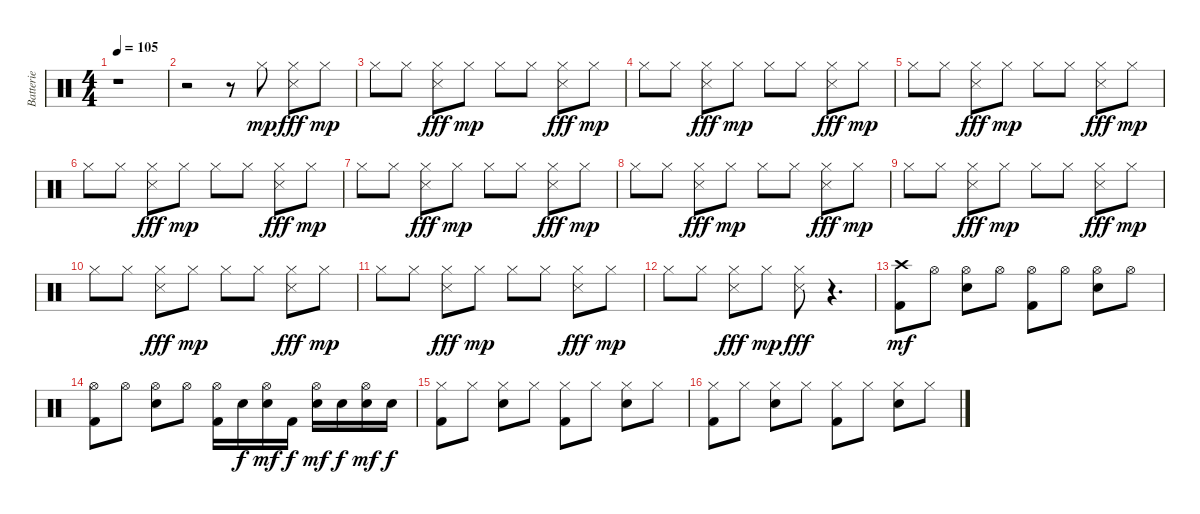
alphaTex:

\track ("Batterie" "Batterie") {instrument percussion}
\staff {score}
\articulation defaults
\ts (4 4)
\tempo 105
\clef neutral
\ks c
r.1{dy mp} |
r.2 r.8 "Hi-Hat (closed)".8 ("Hi-Hat (closed)" "Snare (side stick) 3").8{dy fff} "Hi-Hat (closed)".8{dy mp} |
"Hi-Hat (closed)".8 "Hi-Hat (closed)".8 ("Hi-Hat (closed)" "Snare (side stick) 3").8{dy fff} "Hi-Hat (closed)".8{dy mp} "Hi-Hat (closed)".8 "Hi-Hat (closed)".8 ("Hi-Hat (closed)" "Snare (side stick) 3").8{dy fff} "Hi-Hat (closed)".8{dy mp} |
"Hi-Hat (closed)".8 "Hi-Hat (closed)".8 ("Hi-Hat (closed)" "Snare (side stick) 3").8{dy fff} "Hi-Hat (closed)".8{dy mp} "Hi-Hat (closed)".8 "Hi-Hat (closed)".8 ("Hi-Hat (closed)" "Snare (side stick) 3").8{dy fff} "Hi-Hat (closed)".8{dy mp} |
"Hi-Hat (closed)".8 "Hi-Hat (closed)".8 ("Hi-Hat (closed)" "Snare (side stick) 3").8{dy fff} "Hi-Hat (closed)".8{dy mp} "Hi-Hat (closed)".8 "Hi-Hat (closed)".8 ("Hi-Hat (closed)" "Snare (side stick) 3").8{dy fff} "Hi-Hat (closed)".8{dy mp} |
"Hi-Hat (closed)".8 "Hi-Hat (closed)".8 ("Hi-Hat (closed)" "Snare (side stick) 3").8{dy fff} "Hi-Hat (closed)".8{dy mp} "Hi-Hat (closed)".8 "Hi-Hat (closed)".8 ("Hi-Hat (closed)" "Snare (side stick) 3").8{dy fff} "Hi-Hat (closed)".8{dy mp} |
"Hi-Hat (closed)".8 "Hi-Hat (closed)".8 ("Hi-Hat (closed)" "Snare (side stick) 3").8{dy fff} "Hi-Hat (closed)".8{dy mp} "Hi-Hat (closed)".8 "Hi-Hat (closed)".8 ("Hi-Hat (closed)" "Snare (side stick) 3").8{dy fff} "Hi-Hat (closed)".8{dy mp} |
"Hi-Hat (closed)".8 "Hi-Hat (closed)".8 ("Hi-Hat (closed)" "Snare (side stick) 3").8{dy fff} "Hi-Hat (closed)".8{dy mp} "Hi-Hat (closed)".8 "Hi-Hat (closed)".8 ("Hi-Hat (closed)" "Snare (side stick) 3").8{dy fff} "Hi-Hat (closed)".8{dy mp} |
"Hi-Hat (closed)".8 "Hi-Hat (closed)".8 ("Hi-Hat (closed)" "Snare (side stick) 3").8{dy fff} "Hi-Hat (closed)".8{dy mp} "Hi-Hat (closed)".8 "Hi-Hat (closed)".8 ("Hi-Hat (closed)" "Snare (side stick) 3").8{dy fff} "Hi-Hat (closed)".8{dy mp} |
"Hi-Hat (closed)".8 "Hi-Hat (closed)".8 ("Hi-Hat (closed)" "Snare (side stick) 3").8{dy fff} "Hi-Hat (closed)".8{dy mp} "Hi-Hat (closed)".8 "Hi-Hat (closed)".8 ("Hi-Hat (closed)" "Snare (side stick) 3").8{dy fff} "Hi-Hat (closed)".8{dy mp} |
"Hi-Hat (closed)".8 "Hi-Hat (closed)".8 ("Hi-Hat (closed)" "Snare (side stick) 3").8{dy fff} "Hi-Hat (closed)".8{dy mp} "Hi-Hat (closed)".8 "Hi-Hat (closed)".8 ("Hi-Hat (closed)" "Snare (side stick) 3").8{dy fff} "Hi-Hat (closed)".8{dy mp} |
"Hi-Hat (closed)".8 "Hi-Hat (closed)".8 ("Hi-Hat (closed)" "Snare (side stick) 3").8{dy fff} "Hi-Hat (closed)".8{dy mp} ("Hi-Hat (closed)" "Snare (side stick) 3").8{dy fff} r.4{d} |
("Crash high (hit)" "Kick (hit) 2").8{dy mf} "Hi-Hat (open)".8 ("Hi-Hat (open)" "Electric Snare (hit)").8 "Hi-Hat (open)".8 ("Hi-Hat (open)" "Kick (hit) 2").8 "Hi-Hat (open)".8 ("Hi-Hat (open)" "Electric Snare (hit)").8 "Hi-Hat (open)".8 |
("Hi-Hat (open)" "Kick (hit) 2").8 "Hi-Hat (open)".8 ("Hi-Hat (open)" "Electric Snare (hit)").8 "Hi-Hat (open)".8 ("Hi-Hat (open)" "Kick (hit) 2").16 "Electric Snare (hit)".16{dy f} ("Hi-Hat (open)" "Electric Snare (hit)").16{dy mf} "Kick (hit) 2".16{dy f} ("Hi-Hat (open)" "Electric Snare (hit)").16{dy mf} "Electric Snare (hit)".16{dy f} ("Hi-Hat (open)" "Electric Snare (hit)").16{dy mf} "Electric Snare (hit)".16{dy f} |
("Hi-Hat (closed)" "Kick (hit) 2").8 "Hi-Hat (closed)".8 ("Hi-Hat (closed)" "Electric Snare (hit)").8 "Hi-Hat (closed)".8 ("Hi-Hat (closed)" "Kick (hit) 2").8 "Hi-Hat (closed)".8 ("Hi-Hat (closed)" "Electric Snare (hit)").8 "Hi-Hat (closed)".8 |
("Hi-Hat (closed)" "Kick (hit) 2").8 "Hi-Hat (closed)".8 ("Hi-Hat (closed)" "Electric Snare (hit)").8 "Hi-Hat (closed)".8 ("Hi-Hat (closed)" "Kick (hit) 2").8 "Hi-Hat (closed)".8 ("Hi-Hat (closed)" "Electric Snare (hit)").8 "Hi-Hat (closed)".8
